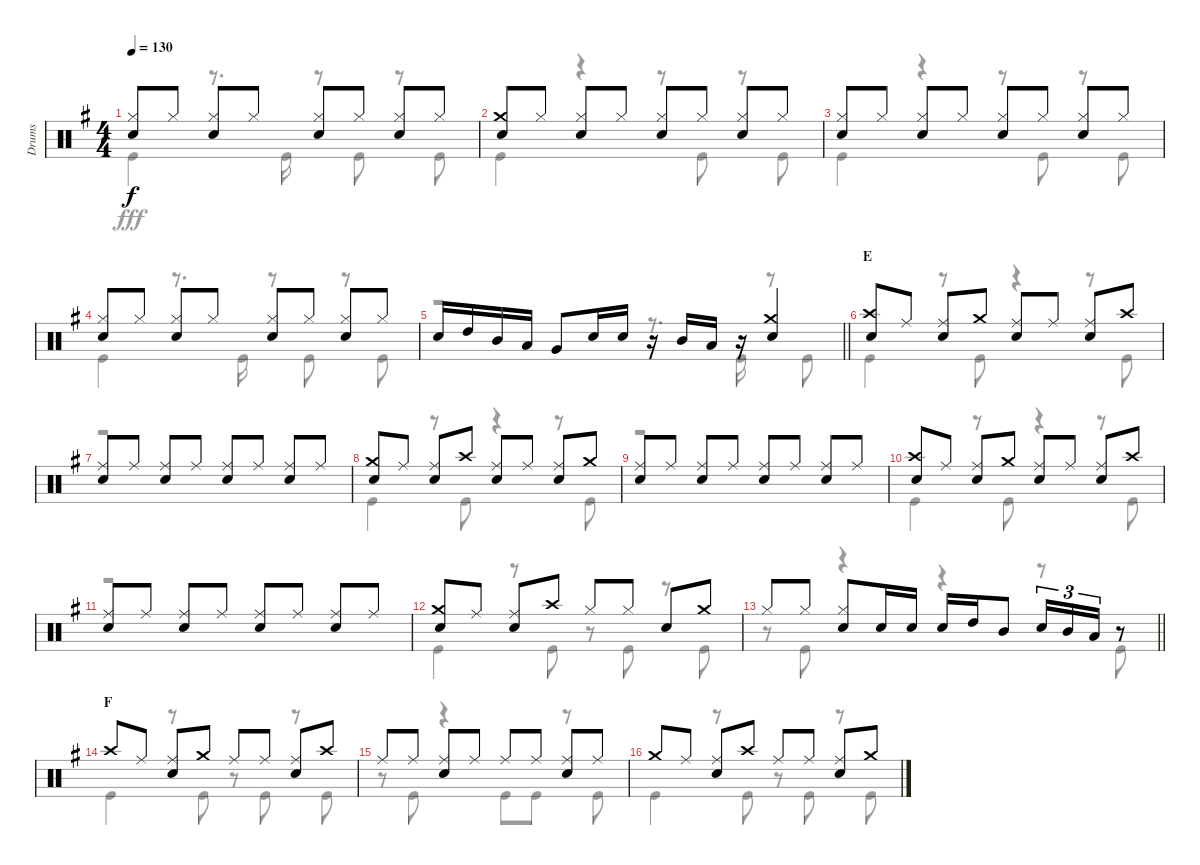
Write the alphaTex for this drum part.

\track ("Drums" "Drums") {instrument percussion}
\staff {score}
\articulation defaults
\voice
\ts (4 4)
\tempo 130
\clef neutral
\ks g
("Hi-Hat (closed)" "Snare (hit) 2").8{dy f} "Hi-Hat (closed)".8 ("Hi-Hat (closed)" "Snare (hit) 2").8 "Hi-Hat (closed)".8 ("Hi-Hat (closed)" "Snare (hit) 2").8 "Hi-Hat (closed)".8 ("Hi-Hat (closed)" "Snare (hit) 2").8 "Hi-Hat (closed)".8 |
("Crash medium (hit)" "Snare (hit) 2").8 "Hi-Hat (closed)".8 ("Hi-Hat (closed)" "Snare (hit) 2").8 "Hi-Hat (closed)".8 ("Hi-Hat (closed)" "Snare (hit) 2").8 "Hi-Hat (closed)".8 ("Hi-Hat (closed)" "Snare (hit) 2").8 "Hi-Hat (closed)".8 |
("Hi-Hat (closed)" "Snare (hit) 2").8 "Hi-Hat (closed)".8 ("Hi-Hat (closed)" "Snare (hit) 2").8 "Hi-Hat (closed)".8 ("Hi-Hat (closed)" "Snare (hit) 2").8 "Hi-Hat (closed)".8 ("Hi-Hat (closed)" "Snare (hit) 2").8 "Hi-Hat (closed)".8 |
("Hi-Hat (closed)" "Snare (hit) 2").8 "Hi-Hat (closed)".8 ("Hi-Hat (closed)" "Snare (hit) 2").8 "Hi-Hat (closed)".8 ("Hi-Hat (closed)" "Snare (hit) 2").8 "Hi-Hat (closed)".8 ("Hi-Hat (closed)" "Snare (hit) 2").8 "Hi-Hat (closed)".8 |
\barLineRight lightlight "Snare (hit) 2".16 "High Tom (hit)".16 "Mid Tom (hit)".16 "Low Tom (hit)".16 "Very Low Tom (hit)".8 "Snare (hit) 2".16 "Snare (hit) 2".16
r.16 "Mid Tom (hit)".16 "Low Tom (hit)".16 r.16 ("Crash medium (hit)" "Snare (hit) 2").4 |
\section ("" "E")
("Crash high (hit)" "Snare (hit) 2").8 "Ride (middle)".8 ("Ride (middle)" "Snare (hit) 2").8 "Crash medium (hit)".8 ("Ride (middle)" "Snare (hit) 2").8 "Ride (middle)".8 ("Ride (middle)" "Snare (hit) 2").8 "Crash high (hit)".8 |
("Ride (middle)" "Snare (hit) 2").8 "Ride (middle)".8 ("Ride (middle)" "Snare (hit) 2").8 "Ride (middle)".8 ("Ride (middle)" "Snare (hit) 2").8 "Ride (middle)".8 ("Ride (middle)" "Snare (hit) 2").8 "Ride (middle)".8 |
("Crash medium (hit)" "Snare (hit) 2").8 "Ride (middle)".8 ("Ride (middle)" "Snare (hit) 2").8 "Crash high (hit)".8 ("Ride (middle)" "Snare (hit) 2").8 "Ride (middle)".8 ("Ride (middle)" "Snare (hit) 2").8 "Crash medium (hit)".8 |
("Ride (middle)" "Snare (hit) 2").8 "Ride (middle)".8 ("Ride (middle)" "Snare (hit) 2").8 "Ride (middle)".8 ("Ride (middle)" "Snare (hit) 2").8 "Ride (middle)".8 ("Ride (middle)" "Snare (hit) 2").8 "Ride (middle)".8 |
("Crash high (hit)" "Snare (hit) 2").8 "Ride (middle)".8 ("Ride (middle)" "Snare (hit) 2").8 "Crash medium (hit)".8 ("Ride (middle)" "Snare (hit) 2").8 "Ride (middle)".8 ("Ride (middle)" "Snare (hit) 2").8 "Crash high (hit)".8 |
("Ride (middle)" "Snare (hit) 2").8 "Ride (middle)".8 ("Ride (middle)" "Snare (hit) 2").8 "Ride (middle)".8 ("Ride (middle)" "Snare (hit) 2").8 "Ride (middle)".8 ("Ride (middle)" "Snare (hit) 2").8 "Ride (middle)".8 |
("Crash medium (hit)" "Snare (hit) 2").8 "Ride (middle)".8 ("Ride (middle)" "Snare (hit) 2").8 "Crash high (hit)".8 "Hi-Hat (closed)".8 "Hi-Hat (closed)".8 "Snare (hit) 2".8 "Crash medium (hit)".8 |
\barLineRight lightlight "Hi-Hat (closed)".8 "Hi-Hat (closed)".8
("Hi-Hat (closed)" "Snare (hit) 2").8 "Snare (hit) 2".16 "Snare (hit) 2".16 "Snare (hit) 2".16 "High Tom (hit)".16 "Mid Tom (hit)".8 "Snare (hit) 2".16{tu (3 2)} "Mid Tom (hit)".16{tu (3 2)} "Low Tom (hit)".16{tu (3 2)} r.8 |
\section ("" "F")
"Crash high (hit)".8 "Ride (middle)".8 ("Ride (middle)" "Snare (hit) 2").8 "Crash medium (hit)".8 "Ride (middle)".8 "Ride (middle)".8 ("Ride (middle)" "Snare (hit) 2").8 "Crash high (hit)".8 |
"Ride (middle)".8 "Ride (middle)".8 ("Ride (middle)" "Snare (hit) 2").8 "Ride (middle)".8 "Ride (middle)".8 "Ride (middle)".8 ("Ride (middle)" "Snare (hit) 2").8 "Ride (middle)".8 |
"Crash medium (hit)".8 "Ride (middle)".8 ("Ride (middle)" "Snare (hit) 2").8 "Crash high (hit)".8 "Ride (middle)".8 "Ride (middle)".8 ("Ride (middle)" "Snare (hit) 2").8 "Crash medium (hit)".8
\voice
\clef neutral
\ottava regular
\simile none
\ks g "Kick (hit)".4{dy fff}
r.8{d} "Kick (hit)".16 r.8 "Kick (hit)".8 r.8 "Kick (hit)".8 |
"Kick (hit)".4 r.4 r.8 "Kick (hit)".8 r.8 "Kick (hit)".8 |
"Kick (hit)".4 r.4 r.8 "Kick (hit)".8 r.8 "Kick (hit)".8 |
"Kick (hit)".4 r.8{d} "Kick (hit)".16 r.8 "Kick (hit)".8 r.8 "Kick (hit)".8 |
\barLineRight lightlight
r.2 r.8{d} "Kick (hit)".16 r.8 "Kick (hit)".8 |
"Kick (hit)".4 r.8 "Kick (hit)".8 r.4 r.8 "Kick (hit)".8 |
r.1 |
"Kick (hit)".4 r.8 "Kick (hit)".8 r.4 r.8 "Kick (hit)".8 |
r.1 |
"Kick (hit)".4 r.8 "Kick (hit)".8 r.4 r.8 "Kick (hit)".8 |
r.1 |
"Kick (hit)".4 r.8 "Kick (hit)".8 r.8 "Kick (hit)".8 r.8 "Kick (hit)".8 |
\barLineRight lightlight
r.8 "Kick (hit)".8 r.4 r.4 r.8 "Kick (hit)".8 |
"Kick (hit)".4 r.8 "Kick (hit)".8 r.8 "Kick (hit)".8 r.8 "Kick (hit)".8 |
r.8 "Kick (hit)".8 r.4 "Kick (hit)".8 "Kick (hit)".8 r.8 "Kick (hit)".8 |
"Kick (hit)".4 r.8 "Kick (hit)".8 r.8 "Kick (hit)".8 r.8 "Kick (hit)".8
